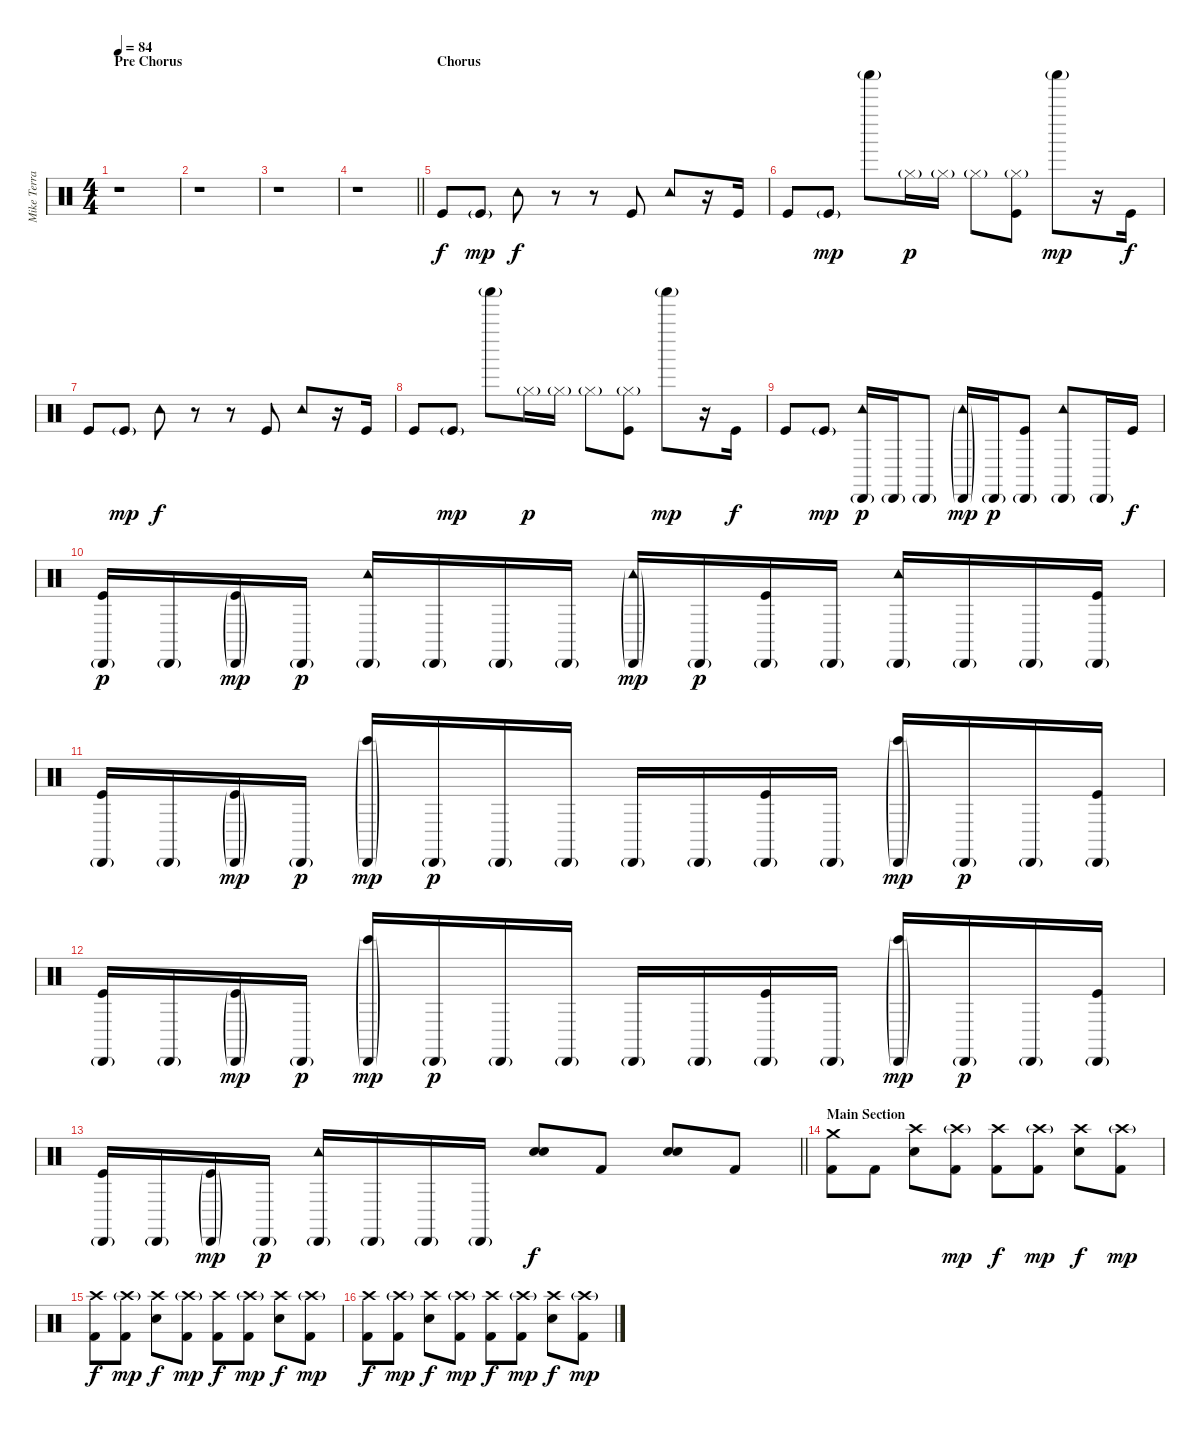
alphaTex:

\track ("Mike Terrana" "Mike Terra") {instrument percussion}
\staff {score}
\articulation defaults
\ts (4 4)
\section ("" "Pre Chorus")
\tempo 84
\clef neutral
\ks c
r.1{dy p} |
r.1 |
r.1 |
\barLineRight lightlight
r.1 |
\section ("" "Chorus")
"Kick (hit)".8{dy f} "Kick (hit)"{g}.8{dy mp} "Tambourine (hit)".8{dy f} r.8 r.8 "Kick (hit)".8 "Tambourine (hit)".8 r.16 "Kick (hit)".16 |
"Kick (hit)".8 "Kick (hit)"{g}.8{dy mp} "Shaker (hit)"{g}.8 "Hi-Hat (closed)"{g}.16{dy p} "Hi-Hat (closed)"{g}.16 "Hi-Hat (closed)"{g}.8 ("Hi-Hat (closed)"{g} "Kick (hit)").8 "Shaker (hit)"{g}.8{dy mp} r.16 "Kick (hit)".16{dy f} |
"Kick (hit)".8 "Kick (hit)"{g}.8{dy mp} "Tambourine (hit)".8{dy f} r.8 r.8 "Kick (hit)".8 "Tambourine (hit)".8 r.16 "Kick (hit)".16 |
"Kick (hit)".8 "Kick (hit)"{g}.8{dy mp} "Shaker (hit)"{g}.8 "Hi-Hat (closed)"{g}.16{dy p} "Hi-Hat (closed)"{g}.16 "Hi-Hat (closed)"{g}.8 ("Hi-Hat (closed)"{g} "Kick (hit)").8 "Shaker (hit)"{g}.8{dy mp} r.16 "Kick (hit)".16{dy f} |
"Kick (hit)".8 "Kick (hit)"{g}.8{dy mp} ("Cabasa (hit)"{g} "Tambourine (hit)").16{dy p} "Cabasa (hit)"{g}.16 "Cabasa (hit)"{g}.8 ("Cabasa (hit)"{g} "Tambourine (hit)"{g}).16{dy mp} "Cabasa (hit)"{g}.16{dy p} ("Cabasa (hit)"{g} "Kick (hit)").8 ("Cabasa (hit)"{g} "Tambourine (hit)").8 "Cabasa (hit)"{g}.16 "Kick (hit)".16{dy f} |
("Cabasa (hit)"{g} "Kick (hit)").16{dy p} "Cabasa (hit)"{g}.16 ("Cabasa (hit)"{g} "Kick (hit)"{g}).16{dy mp} "Cabasa (hit)"{g}.16{dy p} ("Cabasa (hit)"{g} "Tambourine (hit)").16 "Cabasa (hit)"{g}.16 "Cabasa (hit)"{g}.16 "Cabasa (hit)"{g}.16 ("Cabasa (hit)"{g} "Tambourine (hit)"{g}).16{dy mp} "Cabasa (hit)"{g}.16{dy p} ("Cabasa (hit)"{g} "Kick (hit)").16 "Cabasa (hit)"{g}.16 ("Cabasa (hit)"{g} "Tambourine (hit)").16 "Cabasa (hit)"{g}.16 "Cabasa (hit)"{g}.16 ("Cabasa (hit)"{g} "Kick (hit)").16 |
("Cabasa (hit)"{g} "Kick (hit)").16 "Cabasa (hit)"{g}.16 ("Cabasa (hit)"{g} "Kick (hit)"{g}).16{dy mp} "Cabasa (hit)"{g}.16{dy p} ("Cabasa (hit)"{g} "Bongo High (hit)"{g}).16{dy mp} "Cabasa (hit)"{g}.16{dy p} "Cabasa (hit)"{g}.16 "Cabasa (hit)"{g}.16 "Cabasa (hit)"{g}.16 "Cabasa (hit)"{g}.16 ("Cabasa (hit)"{g} "Kick (hit)").16 "Cabasa (hit)"{g}.16 ("Cabasa (hit)"{g} "Bongo High (hit)"{g}).16{dy mp} "Cabasa (hit)"{g}.16{dy p} "Cabasa (hit)"{g}.16 ("Cabasa (hit)"{g} "Kick (hit)").16 |
("Cabasa (hit)"{g} "Kick (hit)").16 "Cabasa (hit)"{g}.16 ("Cabasa (hit)"{g} "Kick (hit)"{g}).16{dy mp} "Cabasa (hit)"{g}.16{dy p} ("Cabasa (hit)"{g} "Bongo High (hit)"{g}).16{dy mp} "Cabasa (hit)"{g}.16{dy p} "Cabasa (hit)"{g}.16 "Cabasa (hit)"{g}.16 "Cabasa (hit)"{g}.16 "Cabasa (hit)"{g}.16 ("Cabasa (hit)"{g} "Kick (hit)").16 "Cabasa (hit)"{g}.16 ("Cabasa (hit)"{g} "Bongo High (hit)"{g}).16{dy mp} "Cabasa (hit)"{g}.16{dy p} "Cabasa (hit)"{g}.16 ("Cabasa (hit)"{g} "Kick (hit)").16 |
\barLineRight lightlight
("Cabasa (hit)"{g} "Kick (hit)").16 "Cabasa (hit)"{g}.16 ("Cabasa (hit)"{g} "Kick (hit)"{g}).16{dy mp} "Cabasa (hit)"{g}.16{dy p} ("Cabasa (hit)"{g} "Tambourine (hit)").16 "Cabasa (hit)"{g}.16 "Cabasa (hit)"{g}.16 "Cabasa (hit)"{g}.16 ("Snare (hit) 2" "Snare (hit) 2").8{dy f} "Kick (hit) 2".8 ("Snare (hit) 2" "Snare (hit) 2").8 "Kick (hit) 2".8 |
\section ("" "Main Section")
("Crash medium (hit)" "Kick (hit) 2").8 "Kick (hit) 2".8 ("Crash high (hit)" "Snare (hit) 2").8 ("Crash high (hit)"{g} "Kick (hit) 2").8{dy mp} ("Crash high (hit)" "Kick (hit) 2").8{dy f} ("Crash high (hit)"{g} "Kick (hit) 2").8{dy mp} ("Crash high (hit)" "Snare (hit) 2").8{dy f} ("Crash high (hit)"{g} "Kick (hit) 2").8{dy mp} |
("Crash high (hit)" "Kick (hit) 2").8{dy f} ("Crash high (hit)"{g} "Kick (hit) 2").8{dy mp} ("Crash high (hit)" "Snare (hit) 2").8{dy f} ("Crash high (hit)"{g} "Kick (hit) 2").8{dy mp} ("Crash high (hit)" "Kick (hit) 2").8{dy f} ("Crash high (hit)"{g} "Kick (hit) 2").8{dy mp} ("Crash high (hit)" "Snare (hit) 2").8{dy f} ("Crash high (hit)"{g} "Kick (hit) 2").8{dy mp} |
("Crash high (hit)" "Kick (hit) 2").8{dy f} ("Crash high (hit)"{g} "Kick (hit) 2").8{dy mp} ("Crash high (hit)" "Snare (hit) 2").8{dy f} ("Crash high (hit)"{g} "Kick (hit) 2").8{dy mp} ("Crash high (hit)" "Kick (hit) 2").8{dy f} ("Crash high (hit)"{g} "Kick (hit) 2").8{dy mp} ("Crash high (hit)" "Snare (hit) 2").8{dy f} ("Crash high (hit)"{g} "Kick (hit) 2").8{dy mp}
